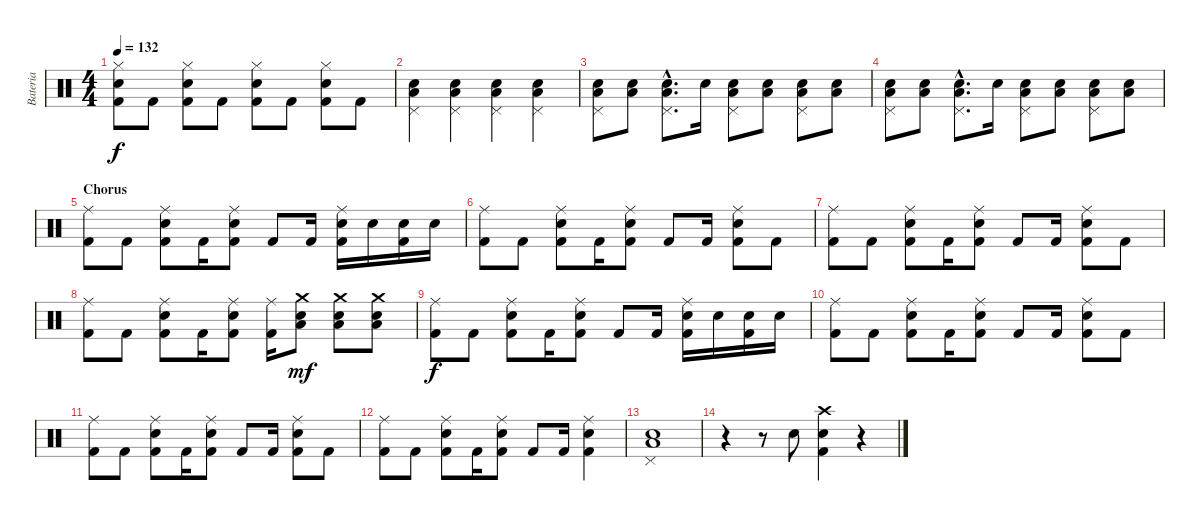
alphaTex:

\track ("Bateria" "Bateria") {instrument percussion}
\staff {score}
\articulation defaults
\ts (4 4)
\tempo 132
\clef neutral
\ks c
("Hi-Hat (closed)" "Kick (hit) 2" "Electric Snare (hit)").8{dy f} "Kick (hit) 2".8 ("Hi-Hat (closed)" "Kick (hit) 2" "Electric Snare (hit)").8 "Kick (hit) 2".8 ("Hi-Hat (closed)" "Kick (hit) 2" "Electric Snare (hit)").8 "Kick (hit) 2".8 ("Hi-Hat (closed)" "Kick (hit) 2" "Electric Snare (hit)").8 "Kick (hit) 2".8 |
("Pedal Hi-Hat (hit)" "Electric Snare (hit)" "Low Floor Tom (hit)").4 ("Pedal Hi-Hat (hit)" "Electric Snare (hit)" "Low Floor Tom (hit)").4 ("Pedal Hi-Hat (hit)" "Electric Snare (hit)" "Low Floor Tom (hit)").4 ("Pedal Hi-Hat (hit)" "Electric Snare (hit)" "Low Floor Tom (hit)").4 |
("Pedal Hi-Hat (hit)" "Electric Snare (hit)" "Low Floor Tom (hit)").8 ("Electric Snare (hit)" "Low Floor Tom (hit)").8 ("Pedal Hi-Hat (hit)"{hac} "Electric Snare (hit)"{hac} "Low Floor Tom (hit)"{hac}).8{d} "Electric Snare (hit)".16 ("Pedal Hi-Hat (hit)" "Electric Snare (hit)" "Low Floor Tom (hit)").8 ("Electric Snare (hit)" "Low Floor Tom (hit)").8 ("Pedal Hi-Hat (hit)" "Electric Snare (hit)" "Low Floor Tom (hit)").8 ("Electric Snare (hit)" "Low Floor Tom (hit)").8 |
("Pedal Hi-Hat (hit)" "Electric Snare (hit)" "Low Floor Tom (hit)").8 ("Electric Snare (hit)" "Low Floor Tom (hit)").8 ("Pedal Hi-Hat (hit)"{hac} "Electric Snare (hit)"{hac} "Low Floor Tom (hit)"{hac}).8{d} "Electric Snare (hit)".16 ("Pedal Hi-Hat (hit)" "Electric Snare (hit)" "Low Floor Tom (hit)").8 ("Electric Snare (hit)" "Low Floor Tom (hit)").8 ("Pedal Hi-Hat (hit)" "Electric Snare (hit)" "Low Floor Tom (hit)").8 ("Electric Snare (hit)" "Low Floor Tom (hit)").8 |
\section ("" "Chorus")
("Ride (middle)" "Kick (hit) 2").8 "Kick (hit) 2".8 ("Ride (middle)" "Kick (hit) 2" "Electric Snare (hit)").8 "Kick (hit) 2".16 ("Ride (middle)" "Kick (hit) 2" "Electric Snare (hit)").8 "Kick (hit) 2".8 "Kick (hit) 2".16 ("Ride (middle)" "Kick (hit) 2" "Electric Snare (hit)").16 "Electric Snare (hit)".16 ("Kick (hit) 2" "Electric Snare (hit)").16 "Electric Snare (hit)".16 |
("Ride (middle)" "Kick (hit) 2").8 "Kick (hit) 2".8 ("Ride (middle)" "Kick (hit) 2" "Electric Snare (hit)").8 "Kick (hit) 2".16 ("Ride (middle)" "Kick (hit) 2" "Electric Snare (hit)").8 "Kick (hit) 2".8 "Kick (hit) 2".16 ("Ride (middle)" "Kick (hit) 2" "Electric Snare (hit)").8 "Kick (hit) 2".8 |
("Ride (middle)" "Kick (hit) 2").8 "Kick (hit) 2".8 ("Ride (middle)" "Kick (hit) 2" "Electric Snare (hit)").8 "Kick (hit) 2".16 ("Ride (middle)" "Kick (hit) 2" "Electric Snare (hit)").8 "Kick (hit) 2".8 "Kick (hit) 2".16 ("Ride (middle)" "Kick (hit) 2" "Electric Snare (hit)").8 "Kick (hit) 2".8 |
("Ride (middle)" "Kick (hit) 2").8 "Kick (hit) 2".8 ("Ride (middle)" "Kick (hit) 2" "Electric Snare (hit)").8 "Kick (hit) 2".16 ("Ride (middle)" "Kick (hit) 2" "Electric Snare (hit)").8 ("Ride (middle)" "Kick (hit) 2").16 ("Crash medium (hit)" "Low Floor Tom (hit)" "Electric Snare (hit)").8{dy mf} ("Crash medium (hit)" "Low Floor Tom (hit)" "Electric Snare (hit)").8 ("Crash medium (hit)" "Low Floor Tom (hit)" "Electric Snare (hit)").8 |
("Ride (middle)" "Kick (hit) 2").8{dy f} "Kick (hit) 2".8 ("Ride (middle)" "Kick (hit) 2" "Electric Snare (hit)").8 "Kick (hit) 2".16 ("Ride (middle)" "Kick (hit) 2" "Electric Snare (hit)").8 "Kick (hit) 2".8 "Kick (hit) 2".16 ("Ride (middle)" "Kick (hit) 2" "Electric Snare (hit)").16 "Electric Snare (hit)".16 ("Kick (hit) 2" "Electric Snare (hit)").16 "Electric Snare (hit)".16 |
("Ride (middle)" "Kick (hit) 2").8 "Kick (hit) 2".8 ("Ride (middle)" "Kick (hit) 2" "Electric Snare (hit)").8 "Kick (hit) 2".16 ("Ride (middle)" "Kick (hit) 2" "Electric Snare (hit)").8 "Kick (hit) 2".8 "Kick (hit) 2".16 ("Ride (middle)" "Kick (hit) 2" "Electric Snare (hit)").8 "Kick (hit) 2".8 |
("Ride (middle)" "Kick (hit) 2").8 "Kick (hit) 2".8 ("Ride (middle)" "Kick (hit) 2" "Electric Snare (hit)").8 "Kick (hit) 2".16 ("Ride (middle)" "Kick (hit) 2" "Electric Snare (hit)").8 "Kick (hit) 2".8 "Kick (hit) 2".16 ("Ride (middle)" "Kick (hit) 2" "Electric Snare (hit)").8 "Kick (hit) 2".8 |
("Ride (middle)" "Kick (hit) 2").8 "Kick (hit) 2".8 ("Ride (middle)" "Kick (hit) 2" "Electric Snare (hit)").8 "Kick (hit) 2".16 ("Ride (middle)" "Kick (hit) 2" "Electric Snare (hit)").8 "Kick (hit) 2".8 "Kick (hit) 2".16 ("Ride (middle)" "Kick (hit) 2" "Electric Snare (hit)").4 |
("Pedal Hi-Hat (hit)" "Electric Snare (hit)" "Low Floor Tom (hit)").1 |
r.4 r.8 "Electric Snare (hit)".8 ("Kick (hit) 2" "Crash high (hit)" "Electric Snare (hit)").4 r.4
